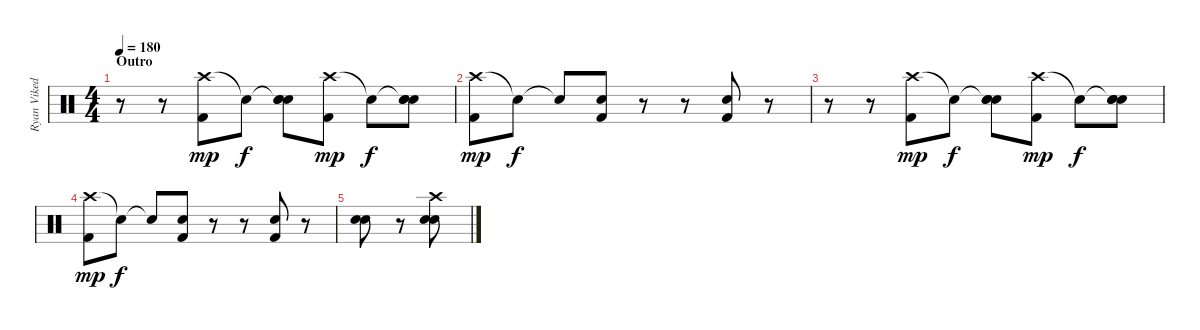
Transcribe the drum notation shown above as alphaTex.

\track ("Ryan Vikedal(drums)" "Ryan Viked") {instrument percussion}
\staff {score}
\articulation defaults
\ts (4 4)
\section ("" "Outro")
\tempo 180
\clef neutral
\ks c
r.8{dy f} r.8 ("Crash high (hit)" "Kick (hit) 2").8{dy mp} "Snare (hit)"{t}.8{dy f} ("Snare (hit)"{t} "Electric Snare (hit)" "Electric Snare (hit)").8 ("Crash high (hit)" "Kick (hit) 2").8{dy mp} "Snare (hit)"{t}.8{dy f} ("Snare (hit)"{t} "Electric Snare (hit)" "Electric Snare (hit)").8 |
("Crash high (hit)" "Kick (hit) 2").8{dy mp} "Snare (hit)"{t}.8{dy f} "Snare (hit)"{t}.8 ("Electric Snare (hit)" "Kick (hit) 2").8 r.8 r.8 ("Electric Snare (hit)" "Kick (hit) 2").8 r.8 |
r.8 r.8 ("Crash high (hit)" "Kick (hit) 2").8{dy mp} "Snare (hit)"{t}.8{dy f} ("Snare (hit)"{t} "Electric Snare (hit)" "Electric Snare (hit)").8 ("Crash high (hit)" "Kick (hit) 2").8{dy mp} "Snare (hit)"{t}.8{dy f} ("Snare (hit)"{t} "Electric Snare (hit)" "Electric Snare (hit)").8 |
("Crash high (hit)" "Kick (hit) 2").8{dy mp} "Snare (hit)"{t}.8{dy f} "Snare (hit)"{t}.8 ("Electric Snare (hit)" "Kick (hit) 2").8 r.8 r.8 ("Electric Snare (hit)" "Kick (hit) 2").8 r.8 |
("Electric Snare (hit)" "Electric Snare (hit)").8 r.8 ("Crash high (hit)" "Electric Snare (hit)" "Electric Snare (hit)").8
